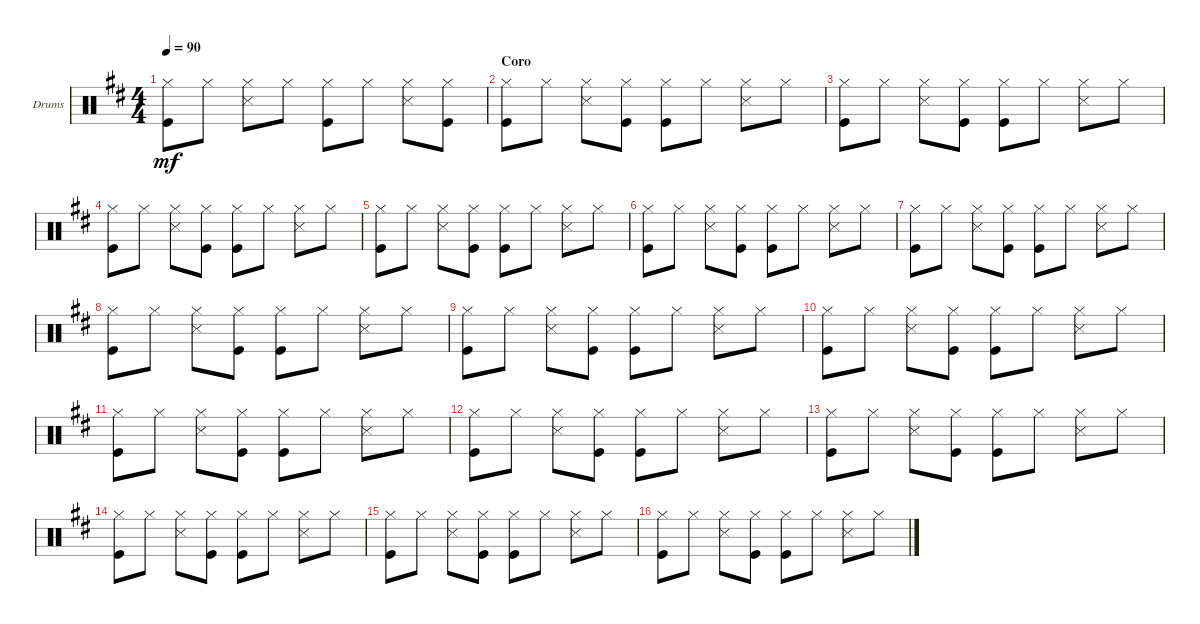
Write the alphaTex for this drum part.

\defaultSystemsLayout 4
\bracketExtendMode groupsimilarinstruments
\firstSystemTrackNameOrientation horizontal
\otherSystemsTrackNameOrientation horizontal
\track ("Drumkit" "Drums") {multiBarRest instrument percussion}
\staff {score}
\articulation defaults
\ts (4 4)
\tempo 90
\clef neutral
\scale
0.333333
\ks d
("Hi-Hat (closed)" "Kick (hit)").8{dy mf} "Hi-Hat (closed)".8 ("Hi-Hat (closed)" "Snare (side stick) 3").8 "Hi-Hat (closed)".8 ("Hi-Hat (closed)" "Kick (hit)").8 "Hi-Hat (closed)".8 ("Hi-Hat (closed)" "Snare (side stick) 3").8 ("Hi-Hat (closed)" "Kick (hit)").8 |
\section ("" "Coro")
\scale
0.333333 ("Hi-Hat (closed)" "Kick (hit)").8 "Hi-Hat (closed)".8 ("Hi-Hat (closed)" "Snare (side stick) 3").8 ("Hi-Hat (closed)" "Kick (hit)").8 ("Hi-Hat (closed)" "Kick (hit)").8 "Hi-Hat (closed)".8 ("Hi-Hat (closed)" "Snare (side stick) 3").8 "Hi-Hat (closed)".8 |
\scale
0.333333 ("Hi-Hat (closed)" "Kick (hit)").8 "Hi-Hat (closed)".8 ("Hi-Hat (closed)" "Snare (side stick) 3").8 ("Hi-Hat (closed)" "Kick (hit)").8 ("Hi-Hat (closed)" "Kick (hit)").8 "Hi-Hat (closed)".8 ("Hi-Hat (closed)" "Snare (side stick) 3").8 "Hi-Hat (closed)".8 |
\scale
0.333333 ("Hi-Hat (closed)" "Kick (hit)").8 "Hi-Hat (closed)".8 ("Hi-Hat (closed)" "Snare (side stick) 3").8 ("Hi-Hat (closed)" "Kick (hit)").8 ("Hi-Hat (closed)" "Kick (hit)").8 "Hi-Hat (closed)".8 ("Hi-Hat (closed)" "Snare (side stick) 3").8 "Hi-Hat (closed)".8 |
\scale
0.333333 ("Hi-Hat (closed)" "Kick (hit)").8 "Hi-Hat (closed)".8 ("Hi-Hat (closed)" "Snare (side stick) 3").8 ("Hi-Hat (closed)" "Kick (hit)").8 ("Hi-Hat (closed)" "Kick (hit)").8 "Hi-Hat (closed)".8 ("Hi-Hat (closed)" "Snare (side stick) 3").8 "Hi-Hat (closed)".8 |
\scale
0.333333 ("Hi-Hat (closed)" "Kick (hit)").8 "Hi-Hat (closed)".8 ("Hi-Hat (closed)" "Snare (side stick) 3").8 ("Hi-Hat (closed)" "Kick (hit)").8 ("Hi-Hat (closed)" "Kick (hit)").8 "Hi-Hat (closed)".8 ("Hi-Hat (closed)" "Snare (side stick) 3").8 "Hi-Hat (closed)".8 |
\scale
0.333333 ("Hi-Hat (closed)" "Kick (hit)").8 "Hi-Hat (closed)".8 ("Hi-Hat (closed)" "Snare (side stick) 3").8 ("Hi-Hat (closed)" "Kick (hit)").8 ("Hi-Hat (closed)" "Kick (hit)").8 "Hi-Hat (closed)".8 ("Hi-Hat (closed)" "Snare (side stick) 3").8 "Hi-Hat (closed)".8 |
\scale
0.333333 ("Hi-Hat (closed)" "Kick (hit)").8 "Hi-Hat (closed)".8 ("Hi-Hat (closed)" "Snare (side stick) 3").8 ("Hi-Hat (closed)" "Kick (hit)").8 ("Hi-Hat (closed)" "Kick (hit)").8 "Hi-Hat (closed)".8 ("Hi-Hat (closed)" "Snare (side stick) 3").8 "Hi-Hat (closed)".8 |
\scale
0.333333 ("Hi-Hat (closed)" "Kick (hit)").8 "Hi-Hat (closed)".8 ("Hi-Hat (closed)" "Snare (side stick) 3").8 ("Hi-Hat (closed)" "Kick (hit)").8 ("Hi-Hat (closed)" "Kick (hit)").8 "Hi-Hat (closed)".8 ("Hi-Hat (closed)" "Snare (side stick) 3").8 "Hi-Hat (closed)".8 |
\scale
0.333333 ("Hi-Hat (closed)" "Kick (hit)").8 "Hi-Hat (closed)".8 ("Hi-Hat (closed)" "Snare (side stick) 3").8 ("Hi-Hat (closed)" "Kick (hit)").8 ("Hi-Hat (closed)" "Kick (hit)").8 "Hi-Hat (closed)".8 ("Hi-Hat (closed)" "Snare (side stick) 3").8 "Hi-Hat (closed)".8 |
\scale
0.333333 ("Hi-Hat (closed)" "Kick (hit)").8 "Hi-Hat (closed)".8 ("Hi-Hat (closed)" "Snare (side stick) 3").8 ("Hi-Hat (closed)" "Kick (hit)").8 ("Hi-Hat (closed)" "Kick (hit)").8 "Hi-Hat (closed)".8 ("Hi-Hat (closed)" "Snare (side stick) 3").8 "Hi-Hat (closed)".8 |
\scale
0.333333 ("Hi-Hat (closed)" "Kick (hit)").8 "Hi-Hat (closed)".8 ("Hi-Hat (closed)" "Snare (side stick) 3").8 ("Hi-Hat (closed)" "Kick (hit)").8 ("Hi-Hat (closed)" "Kick (hit)").8 "Hi-Hat (closed)".8 ("Hi-Hat (closed)" "Snare (side stick) 3").8 "Hi-Hat (closed)".8 |
\scale
0.333333 ("Hi-Hat (closed)" "Kick (hit)").8 "Hi-Hat (closed)".8 ("Hi-Hat (closed)" "Snare (side stick) 3").8 ("Hi-Hat (closed)" "Kick (hit)").8 ("Hi-Hat (closed)" "Kick (hit)").8 "Hi-Hat (closed)".8 ("Hi-Hat (closed)" "Snare (side stick) 3").8 "Hi-Hat (closed)".8 |
\scale
0.333333 ("Hi-Hat (closed)" "Kick (hit)").8 "Hi-Hat (closed)".8 ("Hi-Hat (closed)" "Snare (side stick) 3").8 ("Hi-Hat (closed)" "Kick (hit)").8 ("Hi-Hat (closed)" "Kick (hit)").8 "Hi-Hat (closed)".8 ("Hi-Hat (closed)" "Snare (side stick) 3").8 "Hi-Hat (closed)".8 |
\scale
0.333333 ("Hi-Hat (closed)" "Kick (hit)").8 "Hi-Hat (closed)".8 ("Hi-Hat (closed)" "Snare (side stick) 3").8 ("Hi-Hat (closed)" "Kick (hit)").8 ("Hi-Hat (closed)" "Kick (hit)").8 "Hi-Hat (closed)".8 ("Hi-Hat (closed)" "Snare (side stick) 3").8 "Hi-Hat (closed)".8 |
\scale
0.333333 ("Hi-Hat (closed)" "Kick (hit)").8 "Hi-Hat (closed)".8 ("Hi-Hat (closed)" "Snare (side stick) 3").8 ("Hi-Hat (closed)" "Kick (hit)").8 ("Hi-Hat (closed)" "Kick (hit)").8 "Hi-Hat (closed)".8 ("Hi-Hat (closed)" "Snare (side stick) 3").8 "Hi-Hat (closed)".8
